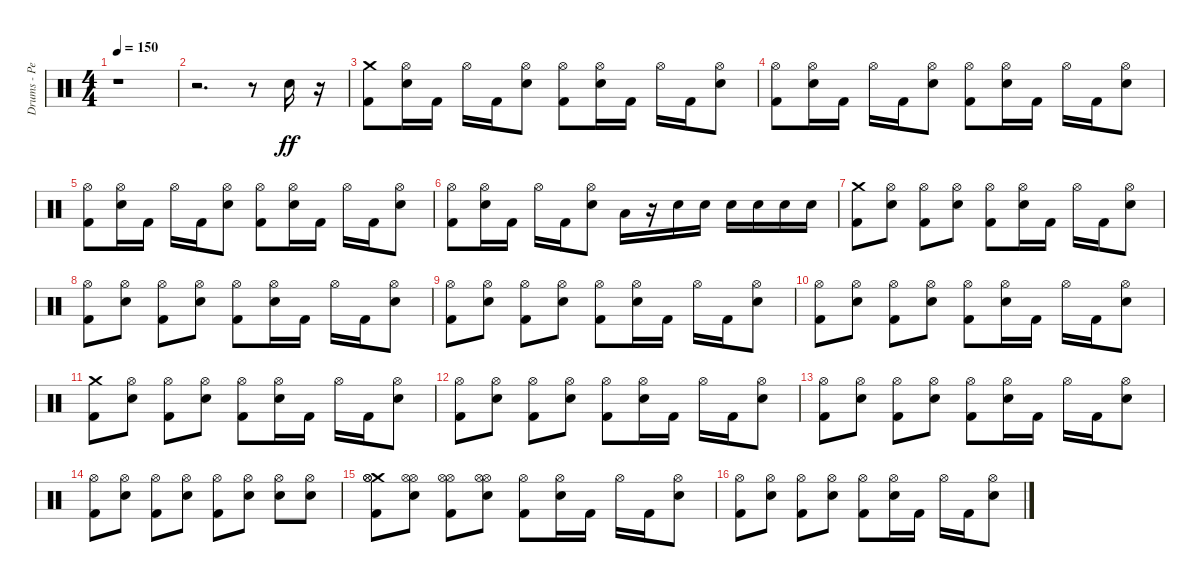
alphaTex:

\track ("Drums - Pete Finestone" "Drums - Pe") {instrument percussion}
\staff {score}
\articulation defaults
\ts (4 4)
\tempo 150
\clef neutral
\ks c
r.1{dy ff} |
r.2{d} r.8 "Electric Snare (hit)".16 r.16 |
("Kick (hit) 2" "Crash medium (hit)").8 ("Electric Snare (hit)" "Hi-Hat (open)").16 "Kick (hit) 2".16 "Hi-Hat (open)".16 "Kick (hit) 2".16 ("Electric Snare (hit)" "Hi-Hat (open)").8 ("Kick (hit) 2" "Hi-Hat (open)").8 ("Electric Snare (hit)" "Hi-Hat (open)").16 "Kick (hit) 2".16 "Hi-Hat (open)".16 "Kick (hit) 2".16 ("Electric Snare (hit)" "Hi-Hat (open)").8 |
("Kick (hit) 2" "Hi-Hat (open)").8 ("Electric Snare (hit)" "Hi-Hat (open)").16 "Kick (hit) 2".16 "Hi-Hat (open)".16 "Kick (hit) 2".16 ("Electric Snare (hit)" "Hi-Hat (open)").8 ("Kick (hit) 2" "Hi-Hat (open)").8 ("Electric Snare (hit)" "Hi-Hat (open)").16 "Kick (hit) 2".16 "Hi-Hat (open)".16 "Kick (hit) 2".16 ("Electric Snare (hit)" "Hi-Hat (open)").8 |
("Kick (hit) 2" "Hi-Hat (open)").8 ("Electric Snare (hit)" "Hi-Hat (open)").16 "Kick (hit) 2".16 "Hi-Hat (open)".16 "Kick (hit) 2".16 ("Electric Snare (hit)" "Hi-Hat (open)").8 ("Kick (hit) 2" "Hi-Hat (open)").8 ("Electric Snare (hit)" "Hi-Hat (open)").16 "Kick (hit) 2".16 "Hi-Hat (open)".16 "Kick (hit) 2".16 ("Electric Snare (hit)" "Hi-Hat (open)").8 |
("Kick (hit) 2" "Hi-Hat (open)").8 ("Electric Snare (hit)" "Hi-Hat (open)").16 "Kick (hit) 2".16 "Hi-Hat (open)".16 "Kick (hit) 2".16 ("Electric Snare (hit)" "Hi-Hat (open)").8 "Low Tom (hit)".16 r.16 "Electric Snare (hit)".16 "Electric Snare (hit)".16 "Electric Snare (hit)".16 "Electric Snare (hit)".16 "Electric Snare (hit)".16 "Electric Snare (hit)".16 |
("Kick (hit) 2" "Crash medium (hit)").8 ("Electric Snare (hit)" "Hi-Hat (open)").8 ("Kick (hit) 2" "Hi-Hat (open)").8 ("Electric Snare (hit)" "Hi-Hat (open)").8 ("Kick (hit) 2" "Hi-Hat (open)").8 ("Electric Snare (hit)" "Hi-Hat (open)").16 "Kick (hit) 2".16 "Hi-Hat (open)".16 "Kick (hit) 2".16 ("Electric Snare (hit)" "Hi-Hat (open)").8 |
("Kick (hit) 2" "Hi-Hat (open)").8 ("Electric Snare (hit)" "Hi-Hat (open)").8 ("Kick (hit) 2" "Hi-Hat (open)").8 ("Electric Snare (hit)" "Hi-Hat (open)").8 ("Kick (hit) 2" "Hi-Hat (open)").8 ("Electric Snare (hit)" "Hi-Hat (open)").16 "Kick (hit) 2".16 "Hi-Hat (open)".16 "Kick (hit) 2".16 ("Electric Snare (hit)" "Hi-Hat (open)").8 |
("Kick (hit) 2" "Hi-Hat (open)").8 ("Electric Snare (hit)" "Hi-Hat (open)").8 ("Kick (hit) 2" "Hi-Hat (open)").8 ("Electric Snare (hit)" "Hi-Hat (open)").8 ("Kick (hit) 2" "Hi-Hat (open)").8 ("Electric Snare (hit)" "Hi-Hat (open)").16 "Kick (hit) 2".16 "Hi-Hat (open)".16 "Kick (hit) 2".16 ("Electric Snare (hit)" "Hi-Hat (open)").8 |
("Kick (hit) 2" "Hi-Hat (open)").8 ("Electric Snare (hit)" "Hi-Hat (open)").8 ("Kick (hit) 2" "Hi-Hat (open)").8 ("Electric Snare (hit)" "Hi-Hat (open)").8 ("Kick (hit) 2" "Hi-Hat (open)").8 ("Electric Snare (hit)" "Hi-Hat (open)").16 "Kick (hit) 2".16 "Hi-Hat (open)".16 "Kick (hit) 2".16 ("Electric Snare (hit)" "Hi-Hat (open)").8 |
("Kick (hit) 2" "Crash medium (hit)").8 ("Electric Snare (hit)" "Hi-Hat (open)").8 ("Kick (hit) 2" "Hi-Hat (open)").8 ("Electric Snare (hit)" "Hi-Hat (open)").8 ("Kick (hit) 2" "Hi-Hat (open)").8 ("Electric Snare (hit)" "Hi-Hat (open)").16 "Kick (hit) 2".16 "Hi-Hat (open)".16 "Kick (hit) 2".16 ("Electric Snare (hit)" "Hi-Hat (open)").8 |
("Kick (hit) 2" "Hi-Hat (open)").8 ("Electric Snare (hit)" "Hi-Hat (open)").8 ("Kick (hit) 2" "Hi-Hat (open)").8 ("Electric Snare (hit)" "Hi-Hat (open)").8 ("Kick (hit) 2" "Hi-Hat (open)").8 ("Electric Snare (hit)" "Hi-Hat (open)").16 "Kick (hit) 2".16 "Hi-Hat (open)".16 "Kick (hit) 2".16 ("Electric Snare (hit)" "Hi-Hat (open)").8 |
("Kick (hit) 2" "Hi-Hat (open)").8 ("Electric Snare (hit)" "Hi-Hat (open)").8 ("Kick (hit) 2" "Hi-Hat (open)").8 ("Electric Snare (hit)" "Hi-Hat (open)").8 ("Kick (hit) 2" "Hi-Hat (open)").8 ("Electric Snare (hit)" "Hi-Hat (open)").16 "Kick (hit) 2".16 "Hi-Hat (open)".16 "Kick (hit) 2".16 ("Electric Snare (hit)" "Hi-Hat (open)").8 |
("Kick (hit) 2" "Hi-Hat (open)").8 ("Electric Snare (hit)" "Hi-Hat (open)").8 ("Kick (hit) 2" "Hi-Hat (open)").8 ("Electric Snare (hit)" "Hi-Hat (open)").8 ("Kick (hit) 2" "Hi-Hat (open)").8 ("Electric Snare (hit)" "Hi-Hat (open)").8 ("Electric Snare (hit)" "Hi-Hat (open)").8 ("Electric Snare (hit)" "Hi-Hat (open)").8 |
("Kick (hit) 2" "Crash medium (hit)" "Hi-Hat (open)" "Hi-Hat (open)").8 ("Hi-Hat (open)" "Electric Snare (hit)" "Hi-Hat (open)").8 ("Hi-Hat (open)" "Kick (hit) 2" "Hi-Hat (open)").8 ("Hi-Hat (open)" "Electric Snare (hit)" "Hi-Hat (open)").8 ("Kick (hit) 2" "Hi-Hat (open)").8 ("Electric Snare (hit)" "Hi-Hat (open)").16 "Kick (hit) 2".16 "Hi-Hat (open)".16 "Kick (hit) 2".16 ("Electric Snare (hit)" "Hi-Hat (open)").8 |
("Kick (hit) 2" "Hi-Hat (open)").8 ("Electric Snare (hit)" "Hi-Hat (open)").8 ("Kick (hit) 2" "Hi-Hat (open)").8 ("Electric Snare (hit)" "Hi-Hat (open)").8 ("Kick (hit) 2" "Hi-Hat (open)").8 ("Electric Snare (hit)" "Hi-Hat (open)").16 "Kick (hit) 2".16 "Hi-Hat (open)".16 "Kick (hit) 2".16 ("Electric Snare (hit)" "Hi-Hat (open)").8
